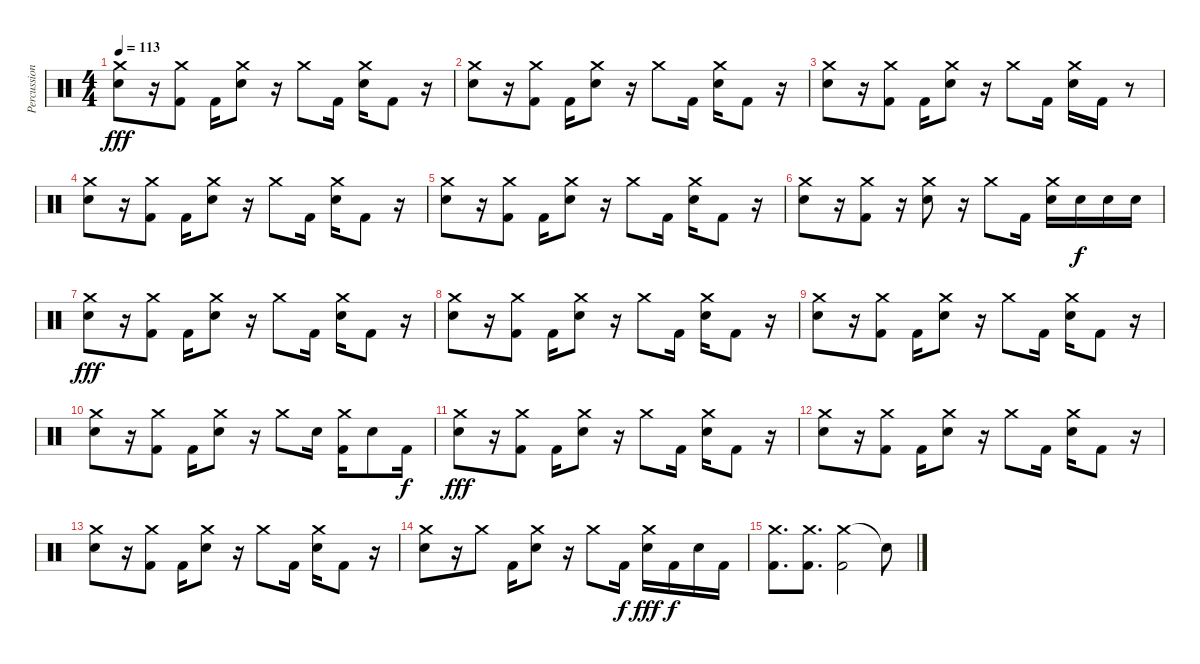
\track ("Percussion" "Percussion") {instrument percussion}
\staff {score}
\articulation defaults
\ts (4 4)
\tempo 113
\clef neutral
\ks c
("Crash medium (hit)" "Electric Snare (hit)").8{dy fff} r.16 ("Crash medium (hit)" "Kick (hit) 2").8 "Kick (hit) 2".16 ("Crash medium (hit)" "Electric Snare (hit)").8 r.16 "Crash medium (hit)".8 "Kick (hit) 2".16 ("Crash medium (hit)" "Electric Snare (hit)").16 "Kick (hit) 2".8 r.16 |
("Crash medium (hit)" "Electric Snare (hit)").8 r.16 ("Crash medium (hit)" "Kick (hit) 2").8 "Kick (hit) 2".16 ("Crash medium (hit)" "Electric Snare (hit)").8 r.16 "Crash medium (hit)".8 "Kick (hit) 2".16 ("Crash medium (hit)" "Electric Snare (hit)").16 "Kick (hit) 2".8 r.16 |
("Crash medium (hit)" "Electric Snare (hit)").8 r.16 ("Crash medium (hit)" "Kick (hit) 2").8 "Kick (hit) 2".16 ("Crash medium (hit)" "Electric Snare (hit)").8 r.16 "Crash medium (hit)".8 "Kick (hit) 2".16 ("Crash medium (hit)" "Electric Snare (hit)").16 "Kick (hit) 2".16 r.8 |
("Crash medium (hit)" "Electric Snare (hit)").8 r.16 ("Crash medium (hit)" "Kick (hit) 2").8 "Kick (hit) 2".16 ("Crash medium (hit)" "Electric Snare (hit)").8 r.16 "Crash medium (hit)".8 "Kick (hit) 2".16 ("Crash medium (hit)" "Electric Snare (hit)").16 "Kick (hit) 2".8 r.16 |
("Crash medium (hit)" "Electric Snare (hit)").8 r.16 ("Crash medium (hit)" "Kick (hit) 2").8 "Kick (hit) 2".16 ("Crash medium (hit)" "Electric Snare (hit)").8 r.16 "Crash medium (hit)".8 "Kick (hit) 2".16 ("Crash medium (hit)" "Electric Snare (hit)").16 "Kick (hit) 2".8 r.16 |
("Crash medium (hit)" "Electric Snare (hit)").8 r.16 ("Crash medium (hit)" "Kick (hit) 2").8 r.16 ("Crash medium (hit)" "Electric Snare (hit)").8 r.16 "Crash medium (hit)".8 "Kick (hit) 2".16 ("Crash medium (hit)" "Electric Snare (hit)").16 "Electric Snare (hit)".16{dy f} "Electric Snare (hit)".16 "Electric Snare (hit)".16 |
("Crash medium (hit)" "Electric Snare (hit)").8{dy fff} r.16 ("Crash medium (hit)" "Kick (hit) 2").8 "Kick (hit) 2".16 ("Crash medium (hit)" "Electric Snare (hit)").8 r.16 "Crash medium (hit)".8 "Kick (hit) 2".16 ("Crash medium (hit)" "Electric Snare (hit)").16 "Kick (hit) 2".8 r.16 |
("Crash medium (hit)" "Electric Snare (hit)").8 r.16 ("Crash medium (hit)" "Kick (hit) 2").8 "Kick (hit) 2".16 ("Crash medium (hit)" "Electric Snare (hit)").8 r.16 "Crash medium (hit)".8 "Kick (hit) 2".16 ("Crash medium (hit)" "Electric Snare (hit)").16 "Kick (hit) 2".8 r.16 |
("Crash medium (hit)" "Electric Snare (hit)").8 r.16 ("Crash medium (hit)" "Kick (hit) 2").8 "Kick (hit) 2".16 ("Crash medium (hit)" "Electric Snare (hit)").8 r.16 "Crash medium (hit)".8 "Kick (hit) 2".16 ("Crash medium (hit)" "Electric Snare (hit)").16 "Kick (hit) 2".8 r.16 |
("Crash medium (hit)" "Electric Snare (hit)").8 r.16 ("Crash medium (hit)" "Kick (hit) 2").8 "Kick (hit) 2".16 ("Crash medium (hit)" "Electric Snare (hit)").8 r.16 "Crash medium (hit)".8 "Electric Snare (hit)".16 ("Crash medium (hit)" "Kick (hit) 2").16 "Electric Snare (hit)".8 "Kick (hit) 2".16{dy f} |
("Crash medium (hit)" "Electric Snare (hit)").8{dy fff} r.16 ("Crash medium (hit)" "Kick (hit) 2").8 "Kick (hit) 2".16 ("Crash medium (hit)" "Electric Snare (hit)").8 r.16 "Crash medium (hit)".8 "Kick (hit) 2".16 ("Crash medium (hit)" "Electric Snare (hit)").16 "Kick (hit) 2".8 r.16 |
("Crash medium (hit)" "Electric Snare (hit)").8 r.16 ("Crash medium (hit)" "Kick (hit) 2").8 "Kick (hit) 2".16 ("Crash medium (hit)" "Electric Snare (hit)").8 r.16 "Crash medium (hit)".8 "Kick (hit) 2".16 ("Crash medium (hit)" "Electric Snare (hit)").16 "Kick (hit) 2".8 r.16 |
("Crash medium (hit)" "Electric Snare (hit)").8 r.16 ("Crash medium (hit)" "Kick (hit) 2").8 "Kick (hit) 2".16 ("Crash medium (hit)" "Electric Snare (hit)").8 r.16 "Crash medium (hit)".8 "Kick (hit) 2".16 ("Crash medium (hit)" "Electric Snare (hit)").16 "Kick (hit) 2".8 r.16 |
("Crash medium (hit)" "Electric Snare (hit)").8 r.16 "Crash medium (hit)".8 "Kick (hit) 2".16 ("Crash medium (hit)" "Electric Snare (hit)").8 r.16 "Crash medium (hit)".8 "Kick (hit) 2".16{dy f} ("Crash medium (hit)" "Electric Snare (hit)").16{dy fff} "Kick (hit) 2".16{dy f} "Electric Snare (hit)".16 "Kick (hit) 2".16 |
("Crash medium (hit)" "Kick (hit) 2").8{d} ("Crash medium (hit)" "Kick (hit) 2").8{d} ("Crash medium (hit)" "Kick (hit) 2").2 "Snare (hit)"{t}.8
